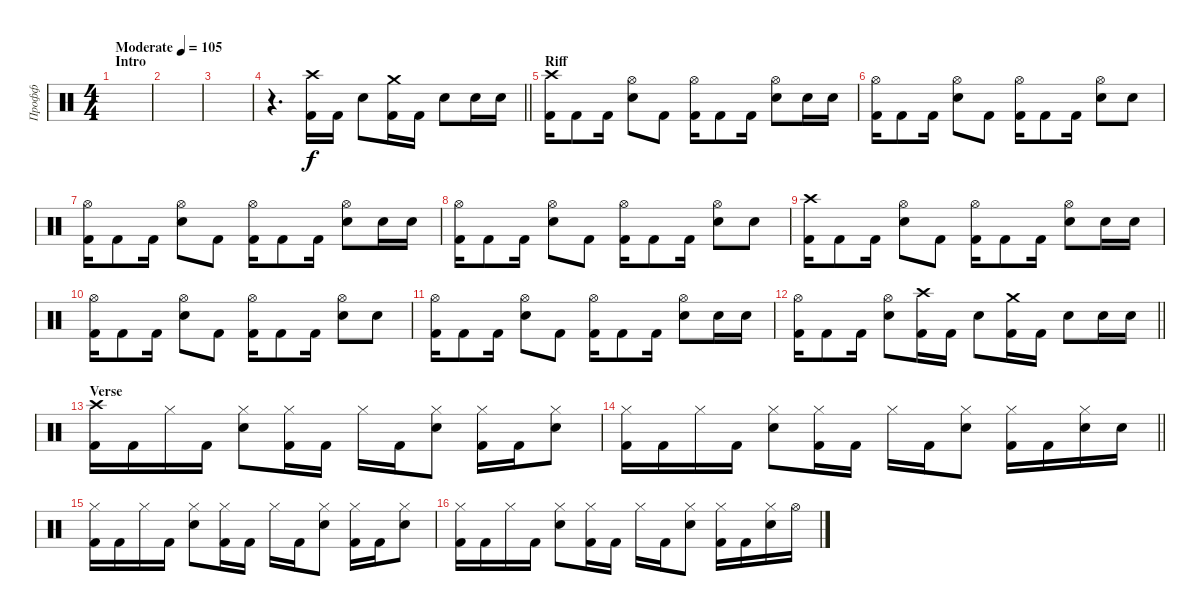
\track ("Профф" "Профф") {instrument percussion}
\staff {score}
\articulation defaults
\ts (4 4)
\section ("" "Intro")
\tempo (105 "Moderate")
\clef neutral
\ks c
|
|
|
\barLineRight lightlight
r.4{d} ("Crash high (hit)" "Kick (hit) 2").16 "Kick (hit) 2".16 "Snare (hit) 2".8 ("Crash medium (hit)" "Kick (hit) 2").16 "Kick (hit) 2".16 "Snare (hit) 2".8 "Snare (hit) 2".16 "Snare (hit) 2".16 |
\section ("" "Riff")
("Crash high (hit)" "Kick (hit) 2").16 "Kick (hit) 2".8 "Kick (hit) 2".16 ("Hi-Hat (open)" "Snare (hit) 2").8 "Kick (hit) 2".8 ("Hi-Hat (open)" "Kick (hit) 2").16 "Kick (hit) 2".8 "Kick (hit) 2".16 ("Hi-Hat (open)" "Snare (hit) 2").8 "Snare (hit) 2".16 "Snare (hit) 2".16 |
("Hi-Hat (open)" "Kick (hit) 2").16 "Kick (hit) 2".8 "Kick (hit) 2".16 ("Hi-Hat (open)" "Snare (hit) 2").8 "Kick (hit) 2".8 ("Hi-Hat (open)" "Kick (hit) 2").16 "Kick (hit) 2".8 "Kick (hit) 2".16 ("Hi-Hat (open)" "Snare (hit) 2").8 "Snare (hit) 2".8 |
("Hi-Hat (open)" "Kick (hit) 2").16 "Kick (hit) 2".8 "Kick (hit) 2".16 ("Hi-Hat (open)" "Snare (hit) 2").8 "Kick (hit) 2".8 ("Hi-Hat (open)" "Kick (hit) 2").16 "Kick (hit) 2".8 "Kick (hit) 2".16 ("Hi-Hat (open)" "Snare (hit) 2").8 "Snare (hit) 2".16 "Snare (hit) 2".16 |
("Hi-Hat (open)" "Kick (hit) 2").16 "Kick (hit) 2".8 "Kick (hit) 2".16 ("Hi-Hat (open)" "Snare (hit) 2").8 "Kick (hit) 2".8 ("Hi-Hat (open)" "Kick (hit) 2").16 "Kick (hit) 2".8 "Kick (hit) 2".16 ("Hi-Hat (open)" "Snare (hit) 2").8 "Snare (hit) 2".8 |
("Crash high (hit)" "Kick (hit) 2").16 "Kick (hit) 2".8 "Kick (hit) 2".16 ("Hi-Hat (open)" "Snare (hit) 2").8 "Kick (hit) 2".8 ("Hi-Hat (open)" "Kick (hit) 2").16 "Kick (hit) 2".8 "Kick (hit) 2".16 ("Hi-Hat (open)" "Snare (hit) 2").8 "Snare (hit) 2".16 "Snare (hit) 2".16 |
("Hi-Hat (open)" "Kick (hit) 2").16 "Kick (hit) 2".8 "Kick (hit) 2".16 ("Hi-Hat (open)" "Snare (hit) 2").8 "Kick (hit) 2".8 ("Hi-Hat (open)" "Kick (hit) 2").16 "Kick (hit) 2".8 "Kick (hit) 2".16 ("Hi-Hat (open)" "Snare (hit) 2").8 "Snare (hit) 2".8 |
("Hi-Hat (open)" "Kick (hit) 2").16 "Kick (hit) 2".8 "Kick (hit) 2".16 ("Hi-Hat (open)" "Snare (hit) 2").8 "Kick (hit) 2".8 ("Hi-Hat (open)" "Kick (hit) 2").16 "Kick (hit) 2".8 "Kick (hit) 2".16 ("Hi-Hat (open)" "Snare (hit) 2").8 "Snare (hit) 2".16 "Snare (hit) 2".16 |
\barLineRight lightlight
("Hi-Hat (open)" "Kick (hit) 2").16 "Kick (hit) 2".8 "Kick (hit) 2".16 ("Hi-Hat (open)" "Snare (hit) 2").8 ("Crash high (hit)" "Kick (hit) 2").16 "Kick (hit) 2".16 "Snare (hit) 2".8 ("Crash medium (hit)" "Kick (hit) 2").16 "Kick (hit) 2".16 "Snare (hit) 2".8 "Snare (hit) 2".16 "Snare (hit) 2".16 |
\section ("" "Verse")
("Crash high (hit)" "Kick (hit) 2").16 "Kick (hit) 2".16 "Hi-Hat (closed)".16 "Kick (hit) 2".16 ("Hi-Hat (closed)" "Snare (hit) 2").8 ("Hi-Hat (closed)" "Kick (hit) 2").16 "Kick (hit) 2".16 "Hi-Hat (closed)".16 "Kick (hit) 2".16 ("Hi-Hat (closed)" "Snare (hit) 2").8 ("Hi-Hat (closed)" "Kick (hit) 2").16 "Kick (hit) 2".16 ("Hi-Hat (closed)" "Snare (hit) 2").8 |
\barLineRight lightlight
("Hi-Hat (closed)" "Kick (hit) 2").16 "Kick (hit) 2".16 "Hi-Hat (closed)".16 "Kick (hit) 2".16 ("Hi-Hat (closed)" "Snare (hit) 2").8 ("Hi-Hat (closed)" "Kick (hit) 2").16 "Kick (hit) 2".16 "Hi-Hat (closed)".16 "Kick (hit) 2".16 ("Hi-Hat (closed)" "Snare (hit) 2").8 ("Hi-Hat (closed)" "Kick (hit) 2").16 "Kick (hit) 2".16 ("Hi-Hat (closed)" "Snare (hit) 2").16 "Snare (hit) 2".16 |
("Hi-Hat (closed)" "Kick (hit) 2").16 "Kick (hit) 2".16 "Hi-Hat (closed)".16 "Kick (hit) 2".16 ("Hi-Hat (closed)" "Snare (hit) 2").8 ("Hi-Hat (closed)" "Kick (hit) 2").16 "Kick (hit) 2".16 "Hi-Hat (closed)".16 "Kick (hit) 2".16 ("Hi-Hat (closed)" "Snare (hit) 2").8 ("Hi-Hat (closed)" "Kick (hit) 2").16 "Kick (hit) 2".16 ("Hi-Hat (closed)" "Snare (hit) 2").8 |
("Hi-Hat (closed)" "Kick (hit) 2").16 "Kick (hit) 2".16 "Hi-Hat (closed)".16 "Kick (hit) 2".16 ("Hi-Hat (closed)" "Snare (hit) 2").8 ("Hi-Hat (closed)" "Kick (hit) 2").16 "Kick (hit) 2".16 "Hi-Hat (closed)".16 "Kick (hit) 2".16 ("Hi-Hat (closed)" "Snare (hit) 2").8 ("Hi-Hat (closed)" "Kick (hit) 2").16 "Kick (hit) 2".16 ("Hi-Hat (closed)" "Snare (hit) 2").16 "Hi-Hat (open)".16
